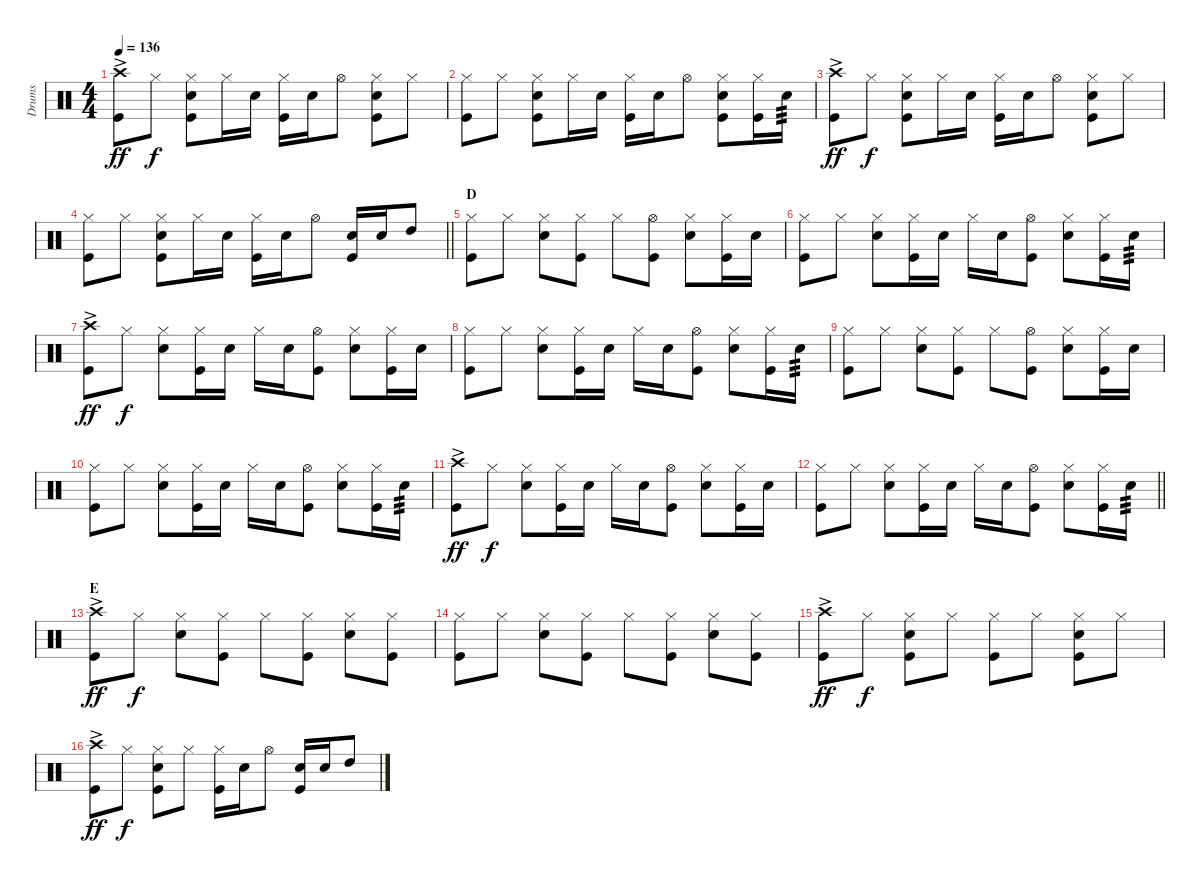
\track ("Drums" "Drums") {instrument percussion}
\staff {score}
\articulation defaults
\ts (4 4)
\tempo 136
\clef neutral
\ks c
("Crash high (hit)"{ac} "Kick (hit)").8{dy ff} "Hi-Hat (closed)".8{dy f} ("Hi-Hat (closed)" "Snare (hit) 2" "Kick (hit)").8 "Hi-Hat (closed)".16 "Snare (hit) 2".16 ("Hi-Hat (closed)" "Kick (hit)").16 "Snare (hit) 2".16 "Hi-Hat (open)".8 ("Hi-Hat (closed)" "Snare (hit) 2" "Kick (hit)").8 "Hi-Hat (closed)".8 |
("Hi-Hat (closed)" "Kick (hit)").8 "Hi-Hat (closed)".8 ("Hi-Hat (closed)" "Snare (hit) 2" "Kick (hit)").8 "Hi-Hat (closed)".16 "Snare (hit) 2".16 ("Hi-Hat (closed)" "Kick (hit)").16 "Snare (hit) 2".16 "Hi-Hat (open)".8 ("Hi-Hat (closed)" "Snare (hit) 2" "Kick (hit)").8 ("Hi-Hat (closed)" "Kick (hit)").16 "Snare (hit) 2".16{tp 3} |
("Crash high (hit)"{ac} "Kick (hit)").8{dy ff} "Hi-Hat (closed)".8{dy f} ("Hi-Hat (closed)" "Snare (hit) 2" "Kick (hit)").8 "Hi-Hat (closed)".16 "Snare (hit) 2".16 ("Hi-Hat (closed)" "Kick (hit)").16 "Snare (hit) 2".16 "Hi-Hat (open)".8 ("Hi-Hat (closed)" "Snare (hit) 2" "Kick (hit)").8 "Hi-Hat (closed)".8 |
\barLineRight lightlight
("Hi-Hat (closed)" "Kick (hit)").8 "Hi-Hat (closed)".8 ("Hi-Hat (closed)" "Snare (hit) 2" "Kick (hit)").8 "Hi-Hat (closed)".16 "Snare (hit) 2".16 ("Hi-Hat (closed)" "Kick (hit)").16 "Snare (hit) 2".16 "Hi-Hat (open)".8 ("Snare (hit) 2" "Kick (hit)").16 "Snare (hit) 2".16 "High Tom (hit)".8 |
\section ("" "D")
("Hi-Hat (closed)" "Kick (hit)").8 "Hi-Hat (closed)".8 ("Hi-Hat (closed)" "Snare (hit) 2").8 ("Hi-Hat (closed)" "Kick (hit)").8 "Hi-Hat (closed)".8 ("Hi-Hat (open)" "Kick (hit)").8 ("Hi-Hat (closed)" "Snare (hit) 2").8 ("Hi-Hat (closed)" "Kick (hit)").16 "Snare (hit) 2".16 |
("Hi-Hat (closed)" "Kick (hit)").8 "Hi-Hat (closed)".8 ("Hi-Hat (closed)" "Snare (hit) 2").8 ("Hi-Hat (closed)" "Kick (hit)").16 "Snare (hit) 2".16 "Hi-Hat (closed)".16 "Snare (hit) 2".16 ("Hi-Hat (open)" "Kick (hit)").8 ("Hi-Hat (closed)" "Snare (hit) 2").8 ("Hi-Hat (closed)" "Kick (hit)").16 "Snare (hit) 2".16{tp 3} |
("Crash high (hit)"{ac} "Kick (hit)").8{dy ff} "Hi-Hat (closed)".8{dy f} ("Hi-Hat (closed)" "Snare (hit) 2").8 ("Hi-Hat (closed)" "Kick (hit)").16 "Snare (hit) 2".16 "Hi-Hat (closed)".16 "Snare (hit) 2".16 ("Hi-Hat (open)" "Kick (hit)").8 ("Hi-Hat (closed)" "Snare (hit) 2").8 ("Hi-Hat (closed)" "Kick (hit)").16 "Snare (hit) 2".16 |
("Hi-Hat (closed)" "Kick (hit)").8 "Hi-Hat (closed)".8 ("Hi-Hat (closed)" "Snare (hit) 2").8 ("Hi-Hat (closed)" "Kick (hit)").16 "Snare (hit) 2".16 "Hi-Hat (closed)".16 "Snare (hit) 2".16 ("Hi-Hat (open)" "Kick (hit)").8 ("Hi-Hat (closed)" "Snare (hit) 2").8 ("Hi-Hat (closed)" "Kick (hit)").16 "Snare (hit) 2".16{tp 3} |
("Hi-Hat (closed)" "Kick (hit)").8 "Hi-Hat (closed)".8 ("Hi-Hat (closed)" "Snare (hit) 2").8 ("Hi-Hat (closed)" "Kick (hit)").8 "Hi-Hat (closed)".8 ("Hi-Hat (open)" "Kick (hit)").8 ("Hi-Hat (closed)" "Snare (hit) 2").8 ("Hi-Hat (closed)" "Kick (hit)").16 "Snare (hit) 2".16 |
("Hi-Hat (closed)" "Kick (hit)").8 "Hi-Hat (closed)".8 ("Hi-Hat (closed)" "Snare (hit) 2").8 ("Hi-Hat (closed)" "Kick (hit)").16 "Snare (hit) 2".16 "Hi-Hat (closed)".16 "Snare (hit) 2".16 ("Hi-Hat (open)" "Kick (hit)").8 ("Hi-Hat (closed)" "Snare (hit) 2").8 ("Hi-Hat (closed)" "Kick (hit)").16 "Snare (hit) 2".16{tp 3} |
("Crash high (hit)"{ac} "Kick (hit)").8{dy ff} "Hi-Hat (closed)".8{dy f} ("Hi-Hat (closed)" "Snare (hit) 2").8 ("Hi-Hat (closed)" "Kick (hit)").16 "Snare (hit) 2".16 "Hi-Hat (closed)".16 "Snare (hit) 2".16 ("Hi-Hat (open)" "Kick (hit)").8 ("Hi-Hat (closed)" "Snare (hit) 2").8 ("Hi-Hat (closed)" "Kick (hit)").16 "Snare (hit) 2".16 |
\barLineRight lightlight
("Hi-Hat (closed)" "Kick (hit)").8 "Hi-Hat (closed)".8 ("Hi-Hat (closed)" "Snare (hit) 2").8 ("Hi-Hat (closed)" "Kick (hit)").16 "Snare (hit) 2".16 "Hi-Hat (closed)".16 "Snare (hit) 2".16 ("Hi-Hat (open)" "Kick (hit)").8 ("Hi-Hat (closed)" "Snare (hit) 2").8 ("Hi-Hat (closed)" "Kick (hit)").16 "Snare (hit) 2".16{tp 3} |
\section ("" "E")
("Crash high (hit)"{ac} "Kick (hit)").8{dy ff} "Hi-Hat (closed)".8{dy f} ("Hi-Hat (closed)" "Snare (hit) 2").8 ("Hi-Hat (closed)" "Kick (hit)").8 "Hi-Hat (closed)".8 ("Hi-Hat (closed)" "Kick (hit)").8 ("Hi-Hat (closed)" "Snare (hit) 2").8 ("Hi-Hat (closed)" "Kick (hit)").8 |
("Hi-Hat (closed)" "Kick (hit)").8 "Hi-Hat (closed)".8 ("Hi-Hat (closed)" "Snare (hit) 2").8 ("Hi-Hat (closed)" "Kick (hit)").8 "Hi-Hat (closed)".8 ("Hi-Hat (closed)" "Kick (hit)").8 ("Hi-Hat (closed)" "Snare (hit) 2").8 ("Hi-Hat (closed)" "Kick (hit)").8 |
("Crash high (hit)"{ac} "Kick (hit)").8{dy ff} "Hi-Hat (closed)".8{dy f} ("Hi-Hat (closed)" "Snare (hit) 2" "Kick (hit)").8 "Hi-Hat (closed)".8 ("Hi-Hat (closed)" "Kick (hit)").8 "Hi-Hat (closed)".8 ("Hi-Hat (closed)" "Snare (hit) 2" "Kick (hit)").8 "Hi-Hat (closed)".8 |
("Crash high (hit)"{ac} "Kick (hit)").8{dy ff} "Hi-Hat (closed)".8{dy f} ("Hi-Hat (closed)" "Snare (hit) 2" "Kick (hit)").8 "Hi-Hat (closed)".8 ("Hi-Hat (closed)" "Kick (hit)").16 "Snare (hit) 2".16 "Hi-Hat (open)".8 ("Snare (hit) 2" "Kick (hit)").16 "Snare (hit) 2".16 "High Tom (hit)".8
